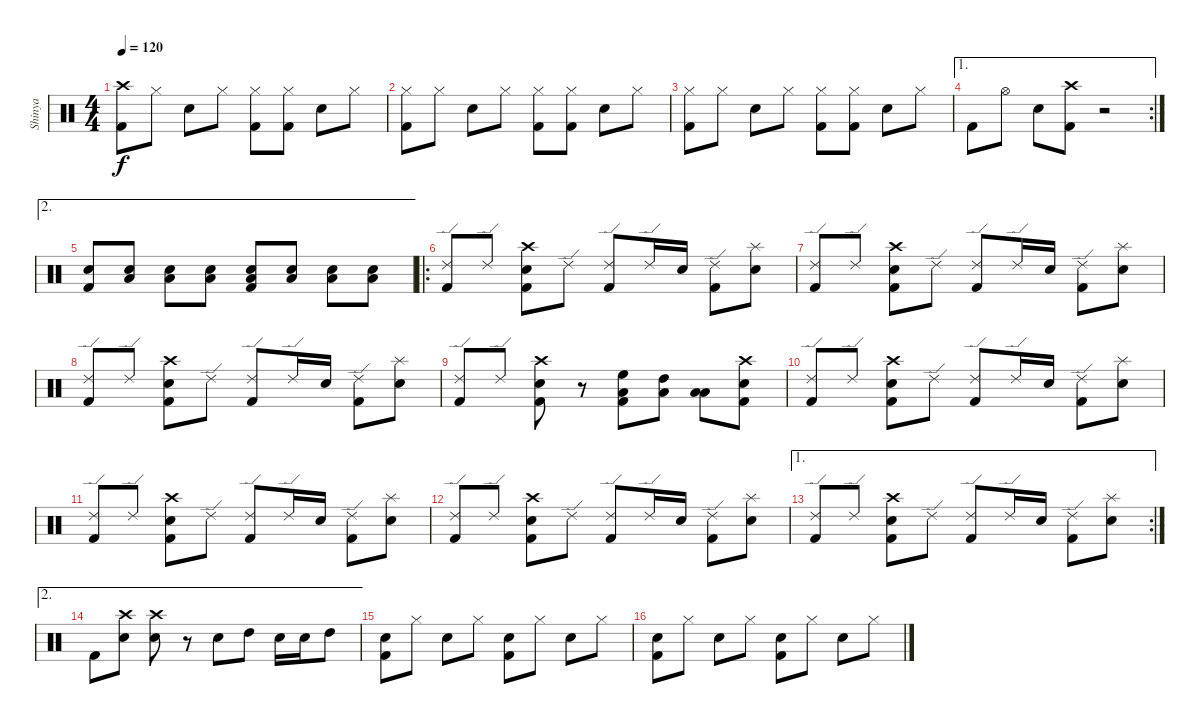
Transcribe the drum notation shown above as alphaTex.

\track ("Shinya" "Shinya") {instrument percussion}
\staff {score}
\articulation defaults
\ts (4 4)
\tempo 120
\clef neutral
\ks c
("Crash high (hit)" "Kick (hit) 2").8{dy f} "Hi-Hat (closed)".8 "Electric Snare (hit)".8 "Hi-Hat (closed)".8 ("Hi-Hat (closed)" "Kick (hit) 2").8 ("Hi-Hat (closed)" "Kick (hit) 2").8 "Electric Snare (hit)".8 "Hi-Hat (closed)".8 |
("Hi-Hat (closed)" "Kick (hit) 2").8 "Hi-Hat (closed)".8 "Electric Snare (hit)".8 "Hi-Hat (closed)".8 ("Hi-Hat (closed)" "Kick (hit) 2").8 ("Hi-Hat (closed)" "Kick (hit) 2").8 "Electric Snare (hit)".8 "Hi-Hat (closed)".8 |
("Hi-Hat (closed)" "Kick (hit) 2").8 "Hi-Hat (closed)".8 "Electric Snare (hit)".8 "Hi-Hat (closed)".8 ("Hi-Hat (closed)" "Kick (hit) 2").8 ("Hi-Hat (closed)" "Kick (hit) 2").8 "Electric Snare (hit)".8 "Hi-Hat (closed)".8 |
\ae 1
\rc 2 "Kick (hit) 2".8 "Hi-Hat (open)".8 "Electric Snare (hit)".8
("Crash high (hit)" "Kick (hit) 2").8 r.2 |
\ae 2
("Snare (hit)"{x} "Kick (hit) 2").8 ("Electric Snare (hit)" "Low Floor Tom (hit)").8 ("Electric Snare (hit)" "Low Floor Tom (hit)").8 ("Electric Snare (hit)" "Low Floor Tom (hit)").8 ("Electric Snare (hit)" "Low Floor Tom (hit)" "Kick (hit) 2").8 ("Electric Snare (hit)" "Low Floor Tom (hit)").8 ("Electric Snare (hit)" "Low Floor Tom (hit)").8 ("Electric Snare (hit)" "Low Floor Tom (hit)").8 |
\ro
("Ride (edge) 2" "Kick (hit) 2").8 "Ride (edge) 2".8 ("Electric Snare (hit)" "Crash high (hit)" "Kick (hit) 2").8 "Ride (edge) 2".8 ("Ride (edge) 2" "Kick (hit) 2").8 "Ride (edge) 2".16 "Electric Snare (hit)".16 ("Ride (edge) 2" "Kick (hit) 2").8 ("Electric Snare (hit)" "Splash (hit)").8 |
("Ride (edge) 2" "Kick (hit) 2").8 "Ride (edge) 2".8 ("Electric Snare (hit)" "Crash high (hit)" "Kick (hit) 2").8 "Ride (edge) 2".8 ("Ride (edge) 2" "Kick (hit) 2").8 "Ride (edge) 2".16 "Electric Snare (hit)".16 ("Ride (edge) 2" "Kick (hit) 2").8 ("Electric Snare (hit)" "Splash (hit)").8 |
("Ride (edge) 2" "Kick (hit) 2").8 "Ride (edge) 2".8 ("Electric Snare (hit)" "Crash high (hit)" "Kick (hit) 2").8 "Ride (edge) 2".8 ("Ride (edge) 2" "Kick (hit) 2").8 "Ride (edge) 2".16 "Electric Snare (hit)".16 ("Ride (edge) 2" "Kick (hit) 2").8 ("Electric Snare (hit)" "Splash (hit)").8 |
("Ride (edge) 2" "Kick (hit) 2").8 "Ride (edge) 2".8 ("Electric Snare (hit)" "Crash high (hit)" "Kick (hit) 2").8 r.8 ("High Floor Tom (hit)" "Low Floor Tom (hit)" "Kick (hit) 2").8 ("High Tom (hit)" "Low Floor Tom (hit)").8 ("Low Tom (hit)" "Low Floor Tom (hit)").8 ("Electric Snare (hit)" "Crash high (hit)" "Kick (hit) 2"{x}).8 |
("Ride (edge) 2" "Kick (hit) 2").8 "Ride (edge) 2".8 ("Electric Snare (hit)" "Crash high (hit)" "Kick (hit) 2").8 "Ride (edge) 2".8 ("Ride (edge) 2" "Kick (hit) 2").8 "Ride (edge) 2".16 "Electric Snare (hit)".16 ("Ride (edge) 2" "Kick (hit) 2").8 ("Electric Snare (hit)" "Splash (hit)").8 |
("Ride (edge) 2" "Kick (hit) 2").8 "Ride (edge) 2".8 ("Electric Snare (hit)" "Crash high (hit)" "Kick (hit) 2").8 "Ride (edge) 2".8 ("Ride (edge) 2" "Kick (hit) 2").8 "Ride (edge) 2".16 "Electric Snare (hit)".16 ("Ride (edge) 2" "Kick (hit) 2").8 ("Electric Snare (hit)" "Splash (hit)").8 |
("Ride (edge) 2" "Kick (hit) 2").8 "Ride (edge) 2".8 ("Electric Snare (hit)" "Crash high (hit)" "Kick (hit) 2").8 "Ride (edge) 2".8 ("Ride (edge) 2" "Kick (hit) 2").8 "Ride (edge) 2".16 "Electric Snare (hit)".16 ("Ride (edge) 2" "Kick (hit) 2").8 ("Electric Snare (hit)" "Splash (hit)").8 |
\ae 1
\rc 2
("Ride (edge) 2" "Kick (hit) 2").8 "Ride (edge) 2".8 ("Electric Snare (hit)" "Crash high (hit)" "Kick (hit) 2").8 "Ride (edge) 2".8 ("Ride (edge) 2" "Kick (hit) 2").8 "Ride (edge) 2".16 "Electric Snare (hit)".16 ("Ride (edge) 2" "Kick (hit) 2").8 ("Electric Snare (hit)" "Splash (hit)").8 |
\ae 2 "Kick (hit) 2".8
("Electric Snare (hit)" "Crash high (hit)").8 ("Electric Snare (hit)" "Crash high (hit)").8 r.8 "Electric Snare (hit)".8 "High Tom (hit)".8 "Electric Snare (hit)".16 "Electric Snare (hit)".16 "High Tom (hit)".8 |
("Snare (hit)"{x} "Kick (hit) 2").8 "Hi-Hat (closed)".8 "Electric Snare (hit)".8 "Hi-Hat (closed)".8 ("Snare (hit)"{x} "Kick (hit) 2").8 "Hi-Hat (closed)".8 "Electric Snare (hit)".8 "Hi-Hat (closed)".8 |
("Snare (hit)"{x} "Kick (hit) 2").8 "Hi-Hat (closed)".8 "Electric Snare (hit)".8 "Hi-Hat (closed)".8 ("Snare (hit)"{x} "Kick (hit) 2").8 "Hi-Hat (closed)".8 "Electric Snare (hit)".8 "Hi-Hat (closed)".8
